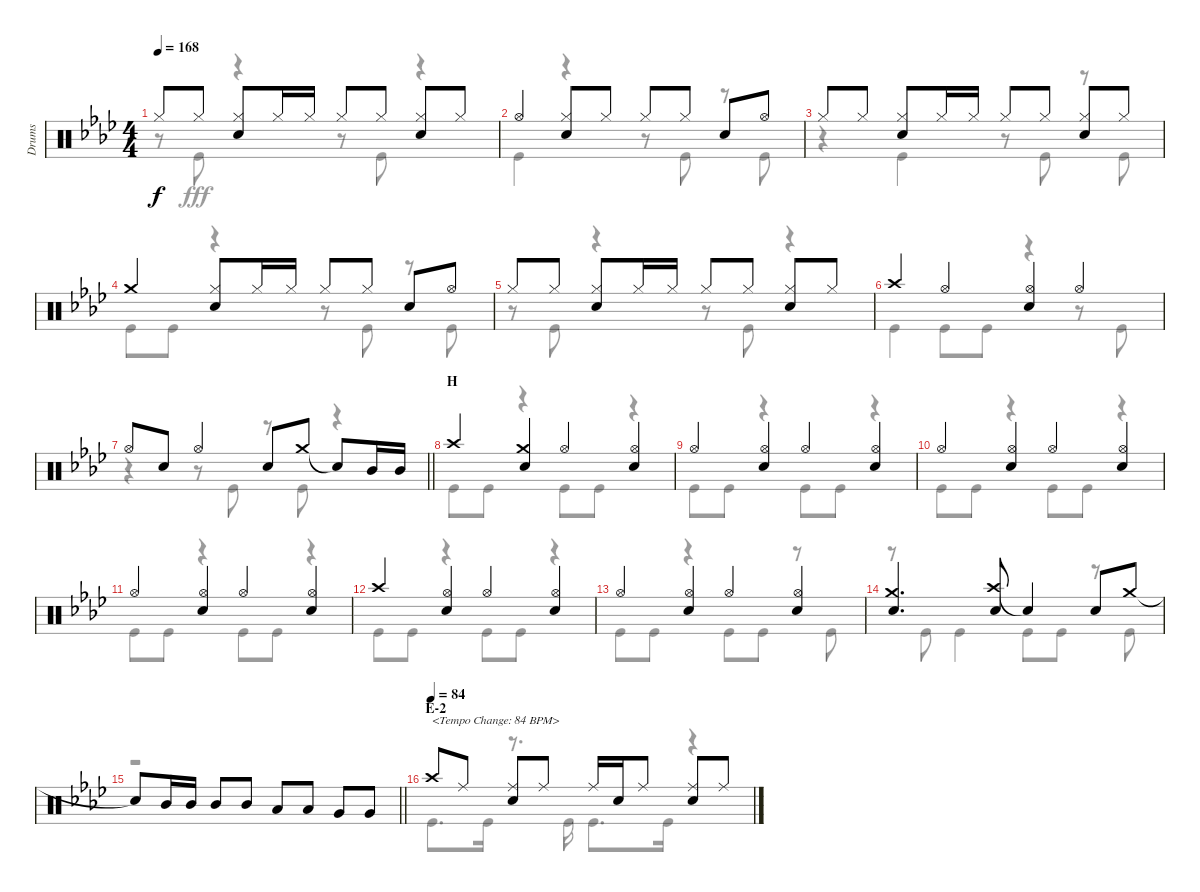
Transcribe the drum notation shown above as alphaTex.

\track ("Drums" "Drums") {instrument percussion}
\staff {score}
\articulation defaults
\voice
\ts (4 4)
\tempo 168
\clef neutral
\ks ab "Hi-Hat (closed)".8{dy f} "Hi-Hat (closed)".8
("Hi-Hat (closed)" "Snare (hit) 2").8 "Hi-Hat (closed)".16 "Hi-Hat (closed)".16 "Hi-Hat (closed)".8 "Hi-Hat (closed)".8 ("Hi-Hat (closed)" "Snare (hit) 2").8 "Hi-Hat (closed)".8 |
"Hi-Hat (open)".4 ("Hi-Hat (closed)" "Snare (hit) 2").8 "Hi-Hat (closed)".8 "Hi-Hat (closed)".8 "Hi-Hat (closed)".8 "Snare (hit) 2".8 "Hi-Hat (open)".8 |
"Hi-Hat (closed)".8 "Hi-Hat (closed)".8 ("Hi-Hat (closed)" "Snare (hit) 2").8 "Hi-Hat (closed)".16 "Hi-Hat (closed)".16 "Hi-Hat (closed)".8 "Hi-Hat (closed)".8 ("Hi-Hat (closed)" "Snare (hit) 2").8 "Hi-Hat (closed)".8 |
"Crash medium (hit)".4 ("Hi-Hat (closed)" "Snare (hit) 2").8 "Hi-Hat (closed)".16 "Hi-Hat (closed)".16 "Hi-Hat (closed)".8 "Hi-Hat (closed)".8 "Snare (hit) 2".8 "Hi-Hat (open)".8 |
"Hi-Hat (closed)".8 "Hi-Hat (closed)".8 ("Hi-Hat (closed)" "Snare (hit) 2").8 "Hi-Hat (closed)".16 "Hi-Hat (closed)".16 "Hi-Hat (closed)".8 "Hi-Hat (closed)".8 ("Hi-Hat (closed)" "Snare (hit) 2").8 "Hi-Hat (closed)".8 |
"Crash high (hit)".4 "Hi-Hat (open)".4 ("Hi-Hat (open)" "Snare (hit) 2").4 "Hi-Hat (open)".4 |
\barLineRight lightlight "Hi-Hat (open)".8 "Snare (hit) 2".8 "Hi-Hat (open)".4 "Snare (hit) 2".8 "Crash medium (hit)".8 "Snare (hit)"{t}.8 "Mid Tom (hit)".16 "Mid Tom (hit)".16
|
\section ("" "H")
"Crash high (hit)".4 ("Crash medium (hit)" "Snare (hit) 2").4 "Hi-Hat (open)".4 ("Hi-Hat (open)" "Snare (hit) 2").4 |
"Hi-Hat (open)".4 ("Hi-Hat (open)" "Snare (hit) 2").4 "Hi-Hat (open)".4 ("Hi-Hat (open)" "Snare (hit) 2").4 |
"Hi-Hat (open)".4 ("Hi-Hat (open)" "Snare (hit) 2").4 "Hi-Hat (open)".4 ("Hi-Hat (open)" "Snare (hit) 2").4 |
"Hi-Hat (open)".4 ("Hi-Hat (open)" "Snare (hit) 2").4 "Hi-Hat (open)".4 ("Hi-Hat (open)" "Snare (hit) 2").4 |
"Crash high (hit)".4 ("Hi-Hat (open)" "Snare (hit) 2").4 "Hi-Hat (open)".4 ("Hi-Hat (open)" "Snare (hit) 2").4 |
"Hi-Hat (open)".4 ("Hi-Hat (open)" "Snare (hit) 2").4 "Hi-Hat (open)".4 ("Hi-Hat (open)" "Snare (hit) 2").4 |
("Crash medium (hit)" "Snare (hit) 2").4{d} ("Crash high (hit)" "Snare (hit) 2").8 "Snare (hit)"{t}.4 "Snare (hit) 2".8 "Crash medium (hit)".8 |
\barLineRight lightlight "Snare (hit)"{t}.8 "Mid Tom (hit)".16 "Mid Tom (hit)".16 "Mid Tom (hit)".8 "Mid Tom (hit)".8 "Low Tom (hit)".8 "Low Tom (hit)".8 "Very Low Tom (hit)".8 "Very Low Tom (hit)".8
|
\section ("" "E-2")
\tempo (84)
"Crash high (hit)".8{txt "<Tempo Change: 84 BPM>"} "Ride (middle)".8 ("Ride (middle)" "Snare (hit) 2").8 "Ride (middle)".8 "Ride (middle)".16 "Snare (hit) 2".16 "Ride (middle)".8 ("Ride (middle)" "Snare (hit) 2").8 "Ride (middle)".8
\voice
\clef neutral
\ottava regular
\simile none
\ks ab
r.8{dy fff} "Kick (hit)".8 r.4 r.8 "Kick (hit)".8 r.4 |
"Kick (hit)".4 r.4 r.8 "Kick (hit)".8 r.8 "Kick (hit)".8 |
r.4 "Kick (hit)".4 r.8 "Kick (hit)".8 r.8 "Kick (hit)".8 |
"Kick (hit)".8 "Kick (hit)".8 r.4 r.8 "Kick (hit)".8 r.8 "Kick (hit)".8 |
r.8 "Kick (hit)".8 r.4 r.8 "Kick (hit)".8 r.4 |
"Kick (hit)".4 "Kick (hit)".8 "Kick (hit)".8 r.4 r.8 "Kick (hit)".8 |
\barLineRight lightlight
r.4 r.8 "Kick (hit)".8 r.8 "Kick (hit)".8 r.4 |
"Kick (hit)".8 "Kick (hit)".8 r.4 "Kick (hit)".8 "Kick (hit)".8 r.4 |
"Kick (hit)".8 "Kick (hit)".8 r.4 "Kick (hit)".8 "Kick (hit)".8 r.4 |
"Kick (hit)".8 "Kick (hit)".8 r.4 "Kick (hit)".8 "Kick (hit)".8 r.4 |
"Kick (hit)".8 "Kick (hit)".8 r.4 "Kick (hit)".8 "Kick (hit)".8 r.4 |
"Kick (hit)".8 "Kick (hit)".8 r.4 "Kick (hit)".8 "Kick (hit)".8 r.4 |
"Kick (hit)".8 "Kick (hit)".8 r.4 "Kick (hit)".8 "Kick (hit)".8 r.8 "Kick (hit)".8 |
r.8 "Kick (hit)".8 "Kick (hit)".4 "Kick (hit)".8 "Kick (hit)".8 r.8 "Kick (hit)".8 |
\barLineRight lightlight
r.1 |
"Kick (hit)".8{d} "Kick (hit)".16 r.8{d} "Kick (hit)".16 "Kick (hit)".8{d} "Kick (hit)".16 r.4
